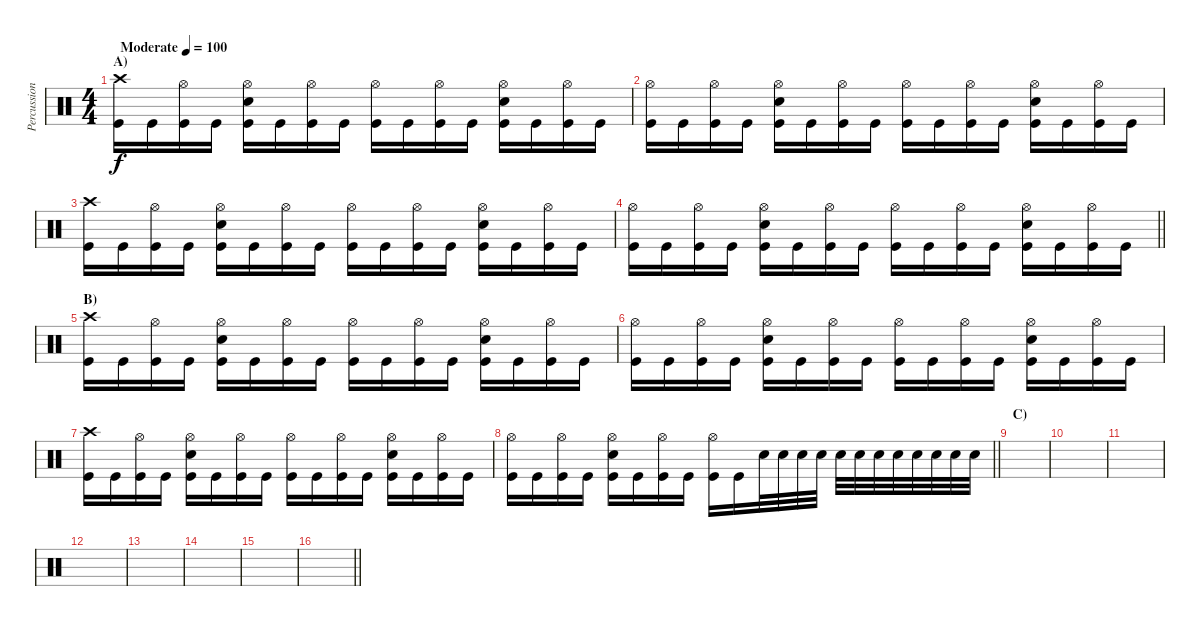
\track ("Percussion" "Percussion") {instrument percussion}
\staff {score}
\articulation defaults
\ts (4 4)
\section ("" "A)")
\tempo (100 "Moderate")
\clef neutral
\ks c
("Crash high (hit)" "Kick (hit)").16{dy f} "Kick (hit)".16 ("Hi-Hat (open)" "Kick (hit)").16 "Kick (hit)".16 ("Hi-Hat (open)" "Snare (hit) 2" "Kick (hit)").16 "Kick (hit)".16 ("Hi-Hat (open)" "Kick (hit)").16 "Kick (hit)".16 ("Hi-Hat (open)" "Kick (hit)").16 "Kick (hit)".16 ("Hi-Hat (open)" "Kick (hit)").16 "Kick (hit)".16 ("Hi-Hat (open)" "Snare (hit) 2" "Kick (hit)").16 "Kick (hit)".16 ("Hi-Hat (open)" "Kick (hit)").16 "Kick (hit)".16 |
("Hi-Hat (open)" "Kick (hit)").16 "Kick (hit)".16 ("Hi-Hat (open)" "Kick (hit)").16 "Kick (hit)".16 ("Hi-Hat (open)" "Snare (hit) 2" "Kick (hit)").16 "Kick (hit)".16 ("Hi-Hat (open)" "Kick (hit)").16 "Kick (hit)".16 ("Hi-Hat (open)" "Kick (hit)").16 "Kick (hit)".16 ("Hi-Hat (open)" "Kick (hit)").16 "Kick (hit)".16 ("Hi-Hat (open)" "Snare (hit) 2" "Kick (hit)").16 "Kick (hit)".16 ("Hi-Hat (open)" "Kick (hit)").16 "Kick (hit)".16 |
("Crash high (hit)" "Kick (hit)").16 "Kick (hit)".16 ("Hi-Hat (open)" "Kick (hit)").16 "Kick (hit)".16 ("Hi-Hat (open)" "Snare (hit) 2" "Kick (hit)").16 "Kick (hit)".16 ("Hi-Hat (open)" "Kick (hit)").16 "Kick (hit)".16 ("Hi-Hat (open)" "Kick (hit)").16 "Kick (hit)".16 ("Hi-Hat (open)" "Kick (hit)").16 "Kick (hit)".16 ("Hi-Hat (open)" "Snare (hit) 2" "Kick (hit)").16 "Kick (hit)".16 ("Hi-Hat (open)" "Kick (hit)").16 "Kick (hit)".16 |
\barLineRight lightlight
("Hi-Hat (open)" "Kick (hit)").16 "Kick (hit)".16 ("Hi-Hat (open)" "Kick (hit)").16 "Kick (hit)".16 ("Hi-Hat (open)" "Snare (hit) 2" "Kick (hit)").16 "Kick (hit)".16 ("Hi-Hat (open)" "Kick (hit)").16 "Kick (hit)".16 ("Hi-Hat (open)" "Kick (hit)").16 "Kick (hit)".16 ("Hi-Hat (open)" "Kick (hit)").16 "Kick (hit)".16 ("Hi-Hat (open)" "Snare (hit) 2" "Kick (hit)").16 "Kick (hit)".16 ("Hi-Hat (open)" "Kick (hit)").16 "Kick (hit)".16 |
\section ("" "B)")
("Crash high (hit)" "Kick (hit)").16 "Kick (hit)".16 ("Hi-Hat (open)" "Kick (hit)").16 "Kick (hit)".16 ("Hi-Hat (open)" "Snare (hit) 2" "Kick (hit)").16 "Kick (hit)".16 ("Hi-Hat (open)" "Kick (hit)").16 "Kick (hit)".16 ("Hi-Hat (open)" "Kick (hit)").16 "Kick (hit)".16 ("Hi-Hat (open)" "Kick (hit)").16 "Kick (hit)".16 ("Hi-Hat (open)" "Snare (hit) 2" "Kick (hit)").16 "Kick (hit)".16 ("Hi-Hat (open)" "Kick (hit)").16 "Kick (hit)".16 |
("Hi-Hat (open)" "Kick (hit)").16 "Kick (hit)".16 ("Hi-Hat (open)" "Kick (hit)").16 "Kick (hit)".16 ("Hi-Hat (open)" "Snare (hit) 2" "Kick (hit)").16 "Kick (hit)".16 ("Hi-Hat (open)" "Kick (hit)").16 "Kick (hit)".16 ("Hi-Hat (open)" "Kick (hit)").16 "Kick (hit)".16 ("Hi-Hat (open)" "Kick (hit)").16 "Kick (hit)".16 ("Hi-Hat (open)" "Snare (hit) 2" "Kick (hit)").16 "Kick (hit)".16 ("Hi-Hat (open)" "Kick (hit)").16 "Kick (hit)".16 |
("Crash high (hit)" "Kick (hit)").16 "Kick (hit)".16 ("Hi-Hat (open)" "Kick (hit)").16 "Kick (hit)".16 ("Hi-Hat (open)" "Snare (hit) 2" "Kick (hit)").16 "Kick (hit)".16 ("Hi-Hat (open)" "Kick (hit)").16 "Kick (hit)".16 ("Hi-Hat (open)" "Kick (hit)").16 "Kick (hit)".16 ("Hi-Hat (open)" "Kick (hit)").16 "Kick (hit)".16 ("Hi-Hat (open)" "Snare (hit) 2" "Kick (hit)").16 "Kick (hit)".16 ("Hi-Hat (open)" "Kick (hit)").16 "Kick (hit)".16 |
\barLineRight lightlight
("Hi-Hat (open)" "Kick (hit)").16 "Kick (hit)".16 ("Hi-Hat (open)" "Kick (hit)").16 "Kick (hit)".16 ("Hi-Hat (open)" "Snare (hit) 2" "Kick (hit)").16 "Kick (hit)".16 ("Hi-Hat (open)" "Kick (hit)").16 "Kick (hit)".16 ("Hi-Hat (open)" "Kick (hit)").16 "Kick (hit)".16 "Snare (hit) 2".32 "Snare (hit) 2".32 "Snare (hit) 2".32 "Snare (hit) 2".32 "Snare (hit) 2".32 "Snare (hit) 2".32 "Snare (hit) 2".32 "Snare (hit) 2".32 "Snare (hit) 2".32 "Snare (hit) 2".32 "Snare (hit) 2".32 "Snare (hit) 2".32 |
\section ("" "C)")
|
|
|
|
|
|
|
\barLineRight lightlight
